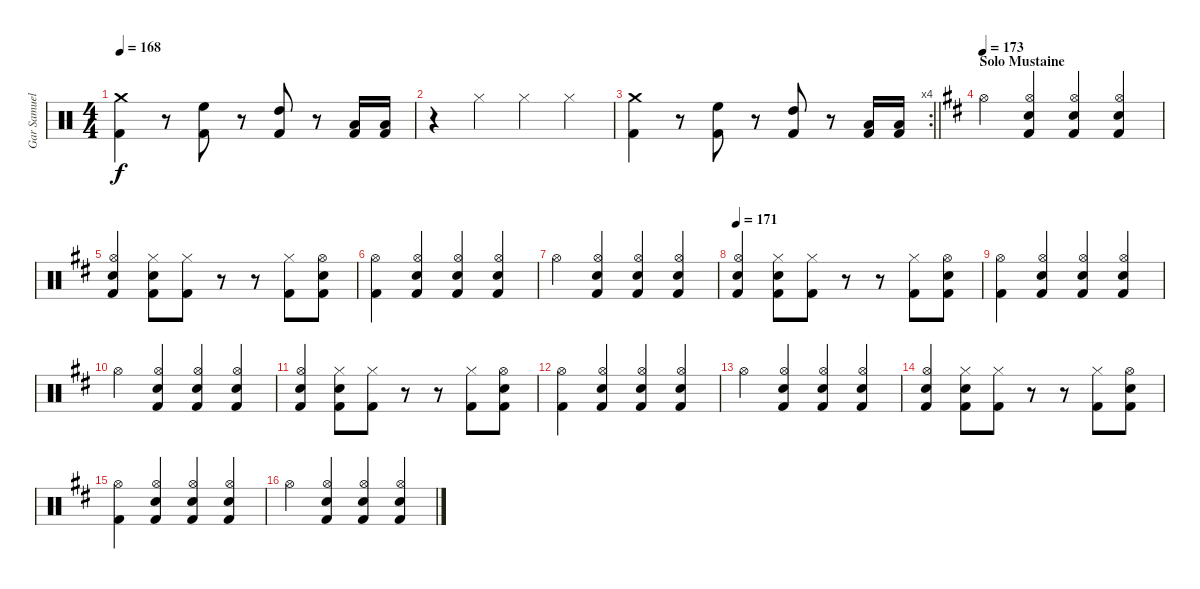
\track ("Gar Samuelson" "Gar Samuel") {instrument percussion}
\staff {score}
\articulation defaults
\ts (4 4)
\tempo 168
\clef neutral
\ks c
("Crash medium (hit)" "Kick (hit) 2").4{dy f} r.8 ("High Floor Tom (hit)" "Kick (hit) 2").8 r.8 ("High Tom (hit)" "Kick (hit) 2").8 r.8 ("Low Tom (hit)" "Kick (hit) 2").16 ("Low Tom (hit)" "Kick (hit) 2").16 |
r.4 "Hi-Hat (closed)".4 "Hi-Hat (closed)".4 "Hi-Hat (closed)".4 |
\rc 4
\barLineRight lightlight
("Crash medium (hit)" "Kick (hit) 2").4 r.8 ("High Floor Tom (hit)" "Kick (hit) 2").8 r.8 ("High Tom (hit)" "Kick (hit) 2").8 r.8 ("Low Tom (hit)" "Kick (hit) 2").16 ("Low Tom (hit)" "Kick (hit) 2").16 |
\section ("" "Solo Mustaine")
\tempo 173
\ks d "Hi-Hat (open)".4
("Hi-Hat (open)" "Snare (hit) 2" "Kick (hit) 2").4 ("Hi-Hat (open)" "Snare (hit) 2" "Kick (hit) 2").4 ("Hi-Hat (open)" "Snare (hit) 2" "Kick (hit) 2").4 |
("Hi-Hat (open)" "Snare (hit) 2" "Kick (hit) 2").4 ("Hi-Hat (closed)" "Snare (hit) 2" "Kick (hit) 2").8 ("Hi-Hat (closed)" "Kick (hit) 2").8 r.8 r.8 ("Hi-Hat (closed)" "Kick (hit) 2").8 ("Hi-Hat (open)" "Snare (hit) 2" "Kick (hit) 2").8 |
("Hi-Hat (open)" "Kick (hit) 2").4 ("Hi-Hat (open)" "Snare (hit) 2" "Kick (hit) 2").4 ("Hi-Hat (open)" "Snare (hit) 2" "Kick (hit) 2").4 ("Hi-Hat (open)" "Snare (hit) 2" "Kick (hit) 2").4 |
"Hi-Hat (open)".4 ("Hi-Hat (open)" "Snare (hit) 2" "Kick (hit) 2").4 ("Hi-Hat (open)" "Snare (hit) 2" "Kick (hit) 2").4 ("Hi-Hat (open)" "Snare (hit) 2" "Kick (hit) 2").4 |
\tempo 171
("Hi-Hat (open)" "Snare (hit) 2" "Kick (hit) 2").4 ("Hi-Hat (closed)" "Snare (hit) 2" "Kick (hit) 2").8 ("Hi-Hat (closed)" "Kick (hit) 2").8 r.8 r.8 ("Hi-Hat (closed)" "Kick (hit) 2").8 ("Hi-Hat (open)" "Snare (hit) 2" "Kick (hit) 2").8 |
("Hi-Hat (open)" "Kick (hit) 2").4 ("Hi-Hat (open)" "Snare (hit) 2" "Kick (hit) 2").4 ("Hi-Hat (open)" "Snare (hit) 2" "Kick (hit) 2").4 ("Hi-Hat (open)" "Snare (hit) 2" "Kick (hit) 2").4 |
"Hi-Hat (open)".4 ("Hi-Hat (open)" "Snare (hit) 2" "Kick (hit) 2").4 ("Hi-Hat (open)" "Snare (hit) 2" "Kick (hit) 2").4 ("Hi-Hat (open)" "Snare (hit) 2" "Kick (hit) 2").4 |
("Hi-Hat (open)" "Snare (hit) 2" "Kick (hit) 2").4 ("Hi-Hat (closed)" "Snare (hit) 2" "Kick (hit) 2").8 ("Hi-Hat (closed)" "Kick (hit) 2").8 r.8 r.8 ("Hi-Hat (closed)" "Kick (hit) 2").8 ("Hi-Hat (open)" "Snare (hit) 2" "Kick (hit) 2").8 |
("Hi-Hat (open)" "Kick (hit) 2").4 ("Hi-Hat (open)" "Snare (hit) 2" "Kick (hit) 2").4 ("Hi-Hat (open)" "Snare (hit) 2" "Kick (hit) 2").4 ("Hi-Hat (open)" "Snare (hit) 2" "Kick (hit) 2").4 |
"Hi-Hat (open)".4 ("Hi-Hat (open)" "Snare (hit) 2" "Kick (hit) 2").4 ("Hi-Hat (open)" "Snare (hit) 2" "Kick (hit) 2").4 ("Hi-Hat (open)" "Snare (hit) 2" "Kick (hit) 2").4 |
("Hi-Hat (open)" "Snare (hit) 2" "Kick (hit) 2").4 ("Hi-Hat (closed)" "Snare (hit) 2" "Kick (hit) 2").8 ("Hi-Hat (closed)" "Kick (hit) 2").8 r.8 r.8 ("Hi-Hat (closed)" "Kick (hit) 2").8 ("Hi-Hat (open)" "Snare (hit) 2" "Kick (hit) 2").8 |
("Hi-Hat (open)" "Kick (hit) 2").4 ("Hi-Hat (open)" "Snare (hit) 2" "Kick (hit) 2").4 ("Hi-Hat (open)" "Snare (hit) 2" "Kick (hit) 2").4 ("Hi-Hat (open)" "Snare (hit) 2" "Kick (hit) 2").4 |
"Hi-Hat (open)".4 ("Hi-Hat (open)" "Snare (hit) 2" "Kick (hit) 2").4 ("Hi-Hat (open)" "Snare (hit) 2" "Kick (hit) 2").4 ("Hi-Hat (open)" "Snare (hit) 2" "Kick (hit) 2").4
